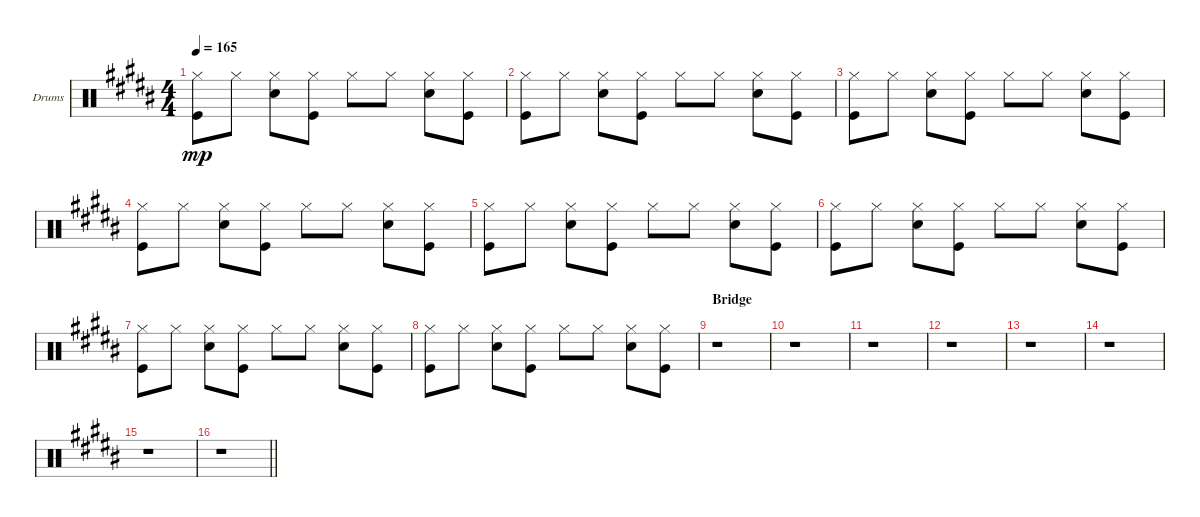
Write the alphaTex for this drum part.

\defaultSystemsLayout 4
\bracketExtendMode groupsimilarinstruments
\firstSystemTrackNameOrientation horizontal
\otherSystemsTrackNameOrientation horizontal
\track ("Drumkit" "Drums") {instrument percussion}
\staff {score}
\articulation defaults
\ts (4 4)
\tempo 165
\clef neutral
\scale
0.242553
\ks b
("Hi-Hat (closed)" "Kick (hit)").8{dy mp} "Hi-Hat (closed)".8 ("Hi-Hat (closed)" "Snare (hit) 2").8 ("Hi-Hat (closed)" "Kick (hit)").8 "Hi-Hat (closed)".8 "Hi-Hat (closed)".8 ("Hi-Hat (closed)" "Snare (hit) 2").8 ("Hi-Hat (closed)" "Kick (hit)").8 |
\scale
0.333333 ("Hi-Hat (closed)" "Kick (hit)").8 "Hi-Hat (closed)".8 ("Hi-Hat (closed)" "Snare (hit) 2").8 ("Hi-Hat (closed)" "Kick (hit)").8 "Hi-Hat (closed)".8 "Hi-Hat (closed)".8 ("Hi-Hat (closed)" "Snare (hit) 2").8 ("Hi-Hat (closed)" "Kick (hit)").8 |
\scale
0.333333 ("Hi-Hat (closed)" "Kick (hit)").8 "Hi-Hat (closed)".8 ("Hi-Hat (closed)" "Snare (hit) 2").8 ("Hi-Hat (closed)" "Kick (hit)").8 "Hi-Hat (closed)".8 "Hi-Hat (closed)".8 ("Hi-Hat (closed)" "Snare (hit) 2").8 ("Hi-Hat (closed)" "Kick (hit)").8 |
\scale
0.333333 ("Hi-Hat (closed)" "Kick (hit)").8 "Hi-Hat (closed)".8 ("Hi-Hat (closed)" "Snare (hit) 2").8 ("Hi-Hat (closed)" "Kick (hit)").8 "Hi-Hat (closed)".8 "Hi-Hat (closed)".8 ("Hi-Hat (closed)" "Snare (hit) 2").8 ("Hi-Hat (closed)" "Kick (hit)").8 |
\scale
0.333333 ("Hi-Hat (closed)" "Kick (hit)").8 "Hi-Hat (closed)".8 ("Hi-Hat (closed)" "Snare (hit) 2").8 ("Hi-Hat (closed)" "Kick (hit)").8 "Hi-Hat (closed)".8 "Hi-Hat (closed)".8 ("Hi-Hat (closed)" "Snare (hit) 2").8 ("Hi-Hat (closed)" "Kick (hit)").8 |
\scale
0.333333 ("Hi-Hat (closed)" "Kick (hit)").8 "Hi-Hat (closed)".8 ("Hi-Hat (closed)" "Snare (hit) 2").8 ("Hi-Hat (closed)" "Kick (hit)").8 "Hi-Hat (closed)".8 "Hi-Hat (closed)".8 ("Hi-Hat (closed)" "Snare (hit) 2").8 ("Hi-Hat (closed)" "Kick (hit)").8 |
\scale
0.333333 ("Hi-Hat (closed)" "Kick (hit)").8 "Hi-Hat (closed)".8 ("Hi-Hat (closed)" "Snare (hit) 2").8 ("Hi-Hat (closed)" "Kick (hit)").8 "Hi-Hat (closed)".8 "Hi-Hat (closed)".8 ("Hi-Hat (closed)" "Snare (hit) 2").8 ("Hi-Hat (closed)" "Kick (hit)").8 |
\scale
0.333333 ("Hi-Hat (closed)" "Kick (hit)").8 "Hi-Hat (closed)".8 ("Hi-Hat (closed)" "Snare (hit) 2").8 ("Hi-Hat (closed)" "Kick (hit)").8 "Hi-Hat (closed)".8 "Hi-Hat (closed)".8 ("Hi-Hat (closed)" "Snare (hit) 2").8 ("Hi-Hat (closed)" "Kick (hit)").8 |
\section ("" "Bridge")
\scale
0.333333 r.1 |
\scale
0.333333 r.1 |
\scale
0.333333 r.1 |
\scale
0.333333 r.1 |
\scale
0.333333 r.1 |
\scale
0.333333 r.1 |
\scale
0.333333 r.1 |
\scale
0.333333
\barLineRight lightlight
r.1
